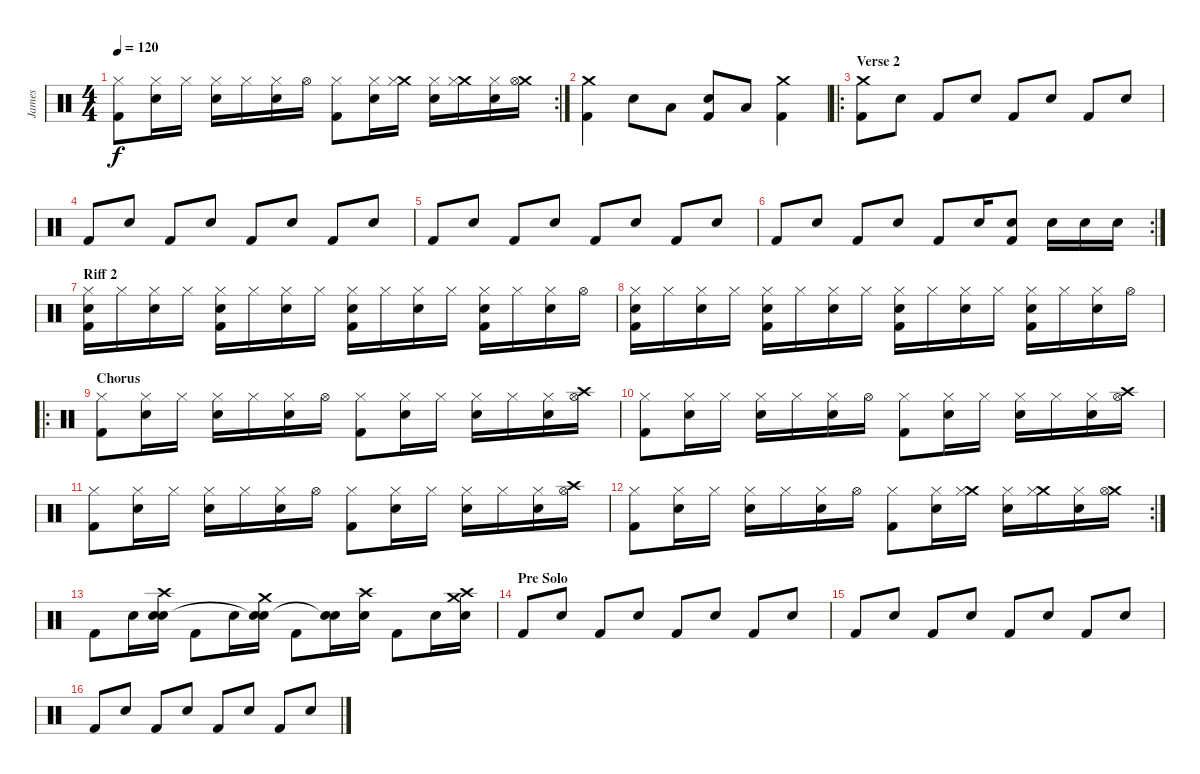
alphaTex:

\track ("James" "James") {instrument percussion}
\staff {score}
\articulation defaults
\rc 2
\ts (4 4)
\tempo 120
\clef neutral
\ks c
("Hi-Hat (closed)" "Kick (hit) 2").8{dy f} ("Hi-Hat (closed)" "Snare (hit) 2").16 "Hi-Hat (closed)".16 ("Hi-Hat (closed)" "Snare (hit) 2").16 "Hi-Hat (closed)".16 ("Hi-Hat (closed)" "Snare (hit) 2").16 "Hi-Hat (open)".16 ("Hi-Hat (closed)" "Kick (hit) 2").8 ("Hi-Hat (closed)" "Snare (hit) 2").16 ("Crash medium (hit)" "Hi-Hat (closed)").16 ("Hi-Hat (closed)" "Snare (hit) 2").16 ("Crash medium (hit)" "Hi-Hat (closed)").16 ("Hi-Hat (closed)" "Snare (hit) 2").16 ("Crash medium (hit)" "Hi-Hat (open)").16 |
("Crash medium (hit)" "Kick (hit) 2").4 "Snare (hit) 2".8 "Low Floor Tom (hit)".8 ("Snare (hit) 2" "Kick (hit) 2").8 "Low Floor Tom (hit)".8 ("Crash medium (hit)" "Kick (hit) 2").4 |
\ro
\section ("" "Verse 2")
("Crash medium (hit)" "Kick (hit) 2").8 "Snare (hit) 2".8 "Kick (hit) 2".8 "Snare (hit) 2".8 "Kick (hit) 2".8 "Snare (hit) 2".8 "Kick (hit) 2".8 "Snare (hit) 2".8 |
"Kick (hit) 2".8 "Snare (hit) 2".8 "Kick (hit) 2".8 "Snare (hit) 2".8 "Kick (hit) 2".8 "Snare (hit) 2".8 "Kick (hit) 2".8 "Snare (hit) 2".8 |
"Kick (hit) 2".8 "Snare (hit) 2".8 "Kick (hit) 2".8 "Snare (hit) 2".8 "Kick (hit) 2".8 "Snare (hit) 2".8 "Kick (hit) 2".8 "Snare (hit) 2".8 |
\rc 2 "Kick (hit) 2".8 "Snare (hit) 2".8 "Kick (hit) 2".8 "Snare (hit) 2".8 "Kick (hit) 2".8 "Snare (hit) 2".16
("Snare (hit) 2" "Kick (hit) 2").8 "Snare (hit) 2".16 "Snare (hit) 2".16 "Snare (hit) 2".16 |
\section ("" "Riff 2")
("Hi-Hat (closed)" "Snare (hit) 2" "Kick (hit) 2").16 "Hi-Hat (closed)".16 ("Hi-Hat (closed)" "Snare (hit) 2").16 "Hi-Hat (closed)".16 ("Hi-Hat (closed)" "Snare (hit) 2" "Kick (hit) 2").16 "Hi-Hat (closed)".16 ("Hi-Hat (closed)" "Snare (hit) 2").16 "Hi-Hat (closed)".16 ("Hi-Hat (closed)" "Snare (hit) 2" "Kick (hit) 2").16 "Hi-Hat (closed)".16 ("Hi-Hat (closed)" "Snare (hit) 2").16 "Hi-Hat (closed)".16 ("Hi-Hat (closed)" "Snare (hit) 2" "Kick (hit) 2").16 "Hi-Hat (closed)".16 ("Hi-Hat (closed)" "Snare (hit) 2").16 "Hi-Hat (open)".16 |
("Hi-Hat (closed)" "Snare (hit) 2" "Kick (hit) 2").16 "Hi-Hat (closed)".16 ("Hi-Hat (closed)" "Snare (hit) 2").16 "Hi-Hat (closed)".16 ("Hi-Hat (closed)" "Snare (hit) 2" "Kick (hit) 2").16 "Hi-Hat (closed)".16 ("Hi-Hat (closed)" "Snare (hit) 2").16 "Hi-Hat (closed)".16 ("Hi-Hat (closed)" "Snare (hit) 2" "Kick (hit) 2").16 "Hi-Hat (closed)".16 ("Hi-Hat (closed)" "Snare (hit) 2").16 "Hi-Hat (closed)".16 ("Hi-Hat (closed)" "Snare (hit) 2" "Kick (hit) 2").16 "Hi-Hat (closed)".16 ("Hi-Hat (closed)" "Snare (hit) 2").16 "Hi-Hat (open)".16 |
\ro
\section ("" "Chorus")
("Hi-Hat (closed)" "Kick (hit) 2").8 ("Hi-Hat (closed)" "Snare (hit) 2").16 "Hi-Hat (closed)".16 ("Hi-Hat (closed)" "Snare (hit) 2").16 "Hi-Hat (closed)".16 ("Hi-Hat (closed)" "Snare (hit) 2").16 "Hi-Hat (open)".16 ("Hi-Hat (closed)" "Kick (hit) 2").8 ("Hi-Hat (closed)" "Snare (hit) 2").16 "Hi-Hat (closed)".16 ("Hi-Hat (closed)" "Snare (hit) 2").16 "Hi-Hat (closed)".16 ("Hi-Hat (closed)" "Snare (hit) 2").16 ("Crash high (hit)" "Hi-Hat (open)").16 |
("Hi-Hat (closed)" "Kick (hit) 2").8 ("Hi-Hat (closed)" "Snare (hit) 2").16 "Hi-Hat (closed)".16 ("Hi-Hat (closed)" "Snare (hit) 2").16 "Hi-Hat (closed)".16 ("Hi-Hat (closed)" "Snare (hit) 2").16 "Hi-Hat (open)".16 ("Hi-Hat (closed)" "Kick (hit) 2").8 ("Hi-Hat (closed)" "Snare (hit) 2").16 "Hi-Hat (closed)".16 ("Hi-Hat (closed)" "Snare (hit) 2").16 "Hi-Hat (closed)".16 ("Hi-Hat (closed)" "Snare (hit) 2").16 ("Crash high (hit)" "Hi-Hat (open)").16 |
("Hi-Hat (closed)" "Kick (hit) 2").8 ("Hi-Hat (closed)" "Snare (hit) 2").16 "Hi-Hat (closed)".16 ("Hi-Hat (closed)" "Snare (hit) 2").16 "Hi-Hat (closed)".16 ("Hi-Hat (closed)" "Snare (hit) 2").16 "Hi-Hat (open)".16 ("Hi-Hat (closed)" "Kick (hit) 2").8 ("Hi-Hat (closed)" "Snare (hit) 2").16 "Hi-Hat (closed)".16 ("Hi-Hat (closed)" "Snare (hit) 2").16 "Hi-Hat (closed)".16 ("Hi-Hat (closed)" "Snare (hit) 2").16 ("Crash high (hit)" "Hi-Hat (open)").16 |
\rc 2
("Hi-Hat (closed)" "Kick (hit) 2").8 ("Hi-Hat (closed)" "Snare (hit) 2").16 "Hi-Hat (closed)".16 ("Hi-Hat (closed)" "Snare (hit) 2").16 "Hi-Hat (closed)".16 ("Hi-Hat (closed)" "Snare (hit) 2").16 "Hi-Hat (open)".16 ("Hi-Hat (closed)" "Kick (hit) 2").8 ("Hi-Hat (closed)" "Snare (hit) 2").16 ("Crash medium (hit)" "Hi-Hat (closed)").16 ("Hi-Hat (closed)" "Snare (hit) 2").16 ("Crash medium (hit)" "Hi-Hat (closed)").16 ("Hi-Hat (closed)" "Snare (hit) 2").16 ("Crash medium (hit)" "Hi-Hat (open)").16 |
"Kick (hit) 2".8 "Snare (hit) 2".16 ("Crash high (hit)" "Snare (hit) 2" "Snare (hit)").16 "Kick (hit) 2".8 "Snare (hit) 2".16 ("Crash medium (hit)" "Snare (hit) 2" "Snare (hit)"{t}).16 "Kick (hit) 2".8 ("Snare (hit) 2" "Snare (hit)"{t}).16 ("Crash high (hit)" "Snare (hit) 2").16 "Kick (hit) 2".8 "Snare (hit) 2".16 ("Crash high (hit)" "Crash medium (hit)" "Snare (hit) 2").16 |
\section ("" "Pre Solo")
"Kick (hit) 2".8 "Snare (hit) 2".8 "Kick (hit) 2".8 "Snare (hit) 2".8 "Kick (hit) 2".8 "Snare (hit) 2".8 "Kick (hit) 2".8 "Snare (hit) 2".8 |
"Kick (hit) 2".8 "Snare (hit) 2".8 "Kick (hit) 2".8 "Snare (hit) 2".8 "Kick (hit) 2".8 "Snare (hit) 2".8 "Kick (hit) 2".8 "Snare (hit) 2".8 |
"Kick (hit) 2".8 "Snare (hit) 2".8 "Kick (hit) 2".8 "Snare (hit) 2".8 "Kick (hit) 2".8 "Snare (hit) 2".8 "Kick (hit) 2".8 "Snare (hit) 2".8
